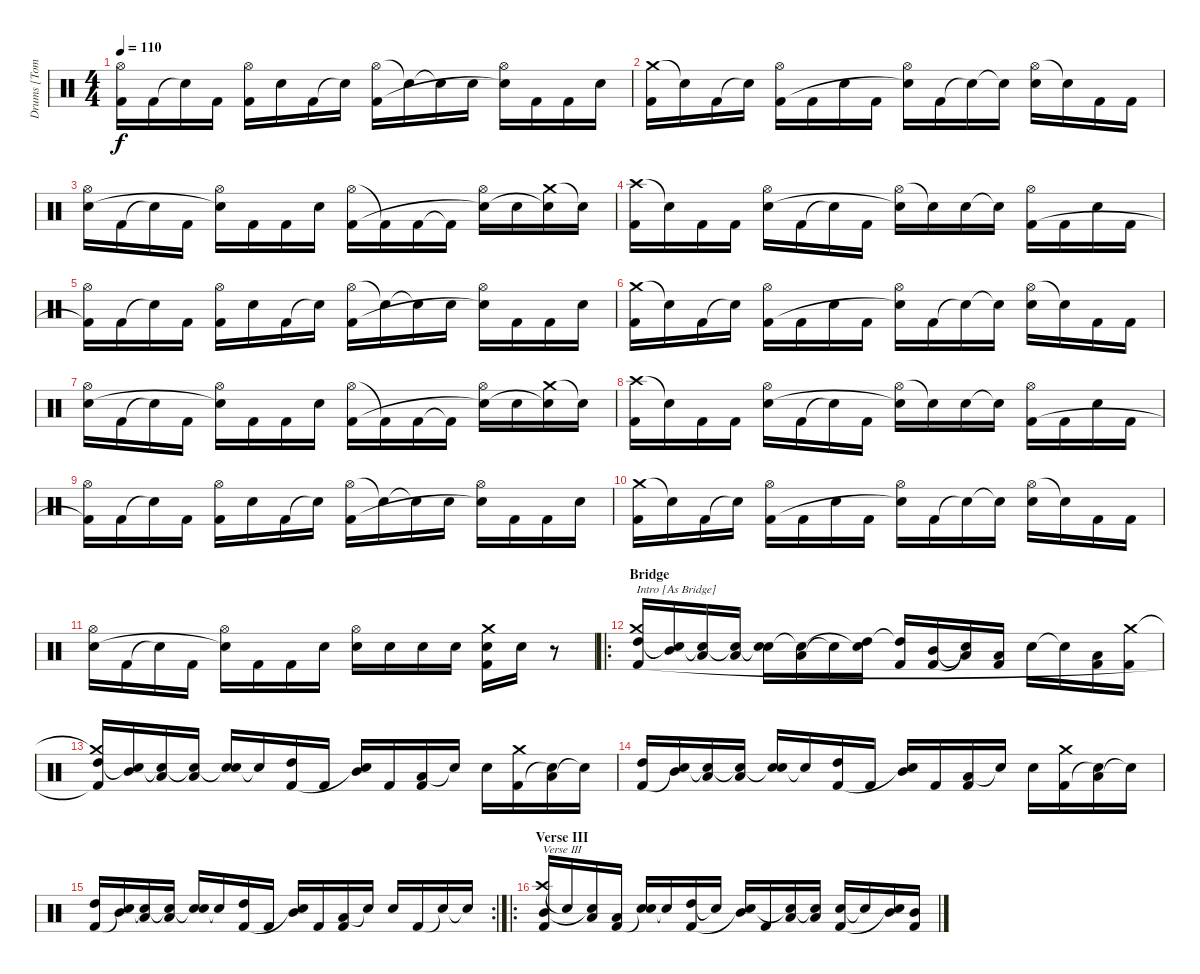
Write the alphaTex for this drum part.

\track ("Drums [Tomas Haake]" "Drums [Tom") {instrument percussion}
\staff {score}
\articulation defaults
\ts (4 4)
\tempo 110
\clef neutral
\ks c
("Hi-Hat (open)" "Kick (hit) 2"{t}).16{dy f} "Kick (hit) 2".16 "Snare (hit)"{t}.16 "Kick (hit) 2".16 ("Hi-Hat (open)" "Kick (hit) 2").16 "Electric Snare (hit)".16 "Kick (hit) 2".16 "Snare (hit)"{t}.16 ("Hi-Hat (open)" "Kick (hit) 2").16 "Snare (hit)"{t}.16 "Snare (hit)"{t}.16 "Electric Snare (hit)".16 ("Hi-Hat (open)" "Snare (hit)"{t}).16 "Kick (hit) 2".16 "Kick (hit) 2".16 "Electric Snare (hit)".16 |
("Crash medium (hit)" "Kick (hit) 2").16 "Snare (hit)"{t}.16 "Kick (hit) 2".16 "Snare (hit)"{t}.16 ("Hi-Hat (open)" "Kick (hit) 2").16 "Kick (hit) 2".16 "Electric Snare (hit)".16 "Kick (hit) 2".16 ("Hi-Hat (open)" "Snare (hit)"{t}).16 "Kick (hit) 2".16 "Snare (hit)"{t}.16 "Snare (hit)"{t}.16 ("Hi-Hat (open)" "Electric Snare (hit)").16 "Snare (hit)"{t}.16 "Kick (hit) 2".16 "Kick (hit) 2".16 |
("Hi-Hat (open)" "Electric Snare (hit)").16 "Kick (hit) 2".16 "Snare (hit)"{t}.16 "Kick (hit) 2".16 ("Hi-Hat (open)" "Snare (hit)"{t}).16 "Kick (hit) 2".16 "Kick (hit) 2".16 "Electric Snare (hit)".16 ("Hi-Hat (open)" "Kick (hit) 2").16 "Kick (hit) 2"{t}.16 "Kick (hit) 2".16 "Kick (hit) 2"{t}.16 ("Hi-Hat (open)" "Snare (hit)"{t}).16 "Electric Snare (hit)".16 ("Crash medium (hit)" "Snare (hit)"{t}).16 "Snare (hit)"{t}.16 |
("Crash high (hit)" "Kick (hit) 2").16 "Snare (hit)"{t}.16 "Kick (hit) 2".16 "Kick (hit) 2".16 ("Hi-Hat (open)" "Electric Snare (hit)").16 "Kick (hit) 2".16 "Snare (hit)"{t}.16 "Kick (hit) 2".16 ("Hi-Hat (open)" "Snare (hit)"{t}).16 "Snare (hit)"{t}.16 "Electric Snare (hit)".16 "Snare (hit)"{t}.16 ("Hi-Hat (open)" "Kick (hit) 2").16 "Kick (hit) 2".16 "Electric Snare (hit)".16 "Kick (hit) 2".16 |
("Hi-Hat (open)" "Kick (hit) 2"{t}).16 "Kick (hit) 2".16 "Snare (hit)"{t}.16 "Kick (hit) 2".16 ("Hi-Hat (open)" "Kick (hit) 2").16 "Electric Snare (hit)".16 "Kick (hit) 2".16 "Snare (hit)"{t}.16 ("Hi-Hat (open)" "Kick (hit) 2").16 "Snare (hit)"{t}.16 "Snare (hit)"{t}.16 "Electric Snare (hit)".16 ("Hi-Hat (open)" "Snare (hit)"{t}).16 "Kick (hit) 2".16 "Kick (hit) 2".16 "Electric Snare (hit)".16 |
("Crash medium (hit)" "Kick (hit) 2").16 "Snare (hit)"{t}.16 "Kick (hit) 2".16 "Snare (hit)"{t}.16 ("Hi-Hat (open)" "Kick (hit) 2").16 "Kick (hit) 2".16 "Electric Snare (hit)".16 "Kick (hit) 2".16 ("Hi-Hat (open)" "Snare (hit)"{t}).16 "Kick (hit) 2".16 "Snare (hit)"{t}.16 "Snare (hit)"{t}.16 ("Hi-Hat (open)" "Electric Snare (hit)").16 "Snare (hit)"{t}.16 "Kick (hit) 2".16 "Kick (hit) 2".16 |
("Hi-Hat (open)" "Electric Snare (hit)").16 "Kick (hit) 2".16 "Snare (hit)"{t}.16 "Kick (hit) 2".16 ("Hi-Hat (open)" "Snare (hit)"{t}).16 "Kick (hit) 2".16 "Kick (hit) 2".16 "Electric Snare (hit)".16 ("Hi-Hat (open)" "Kick (hit) 2").16 "Kick (hit) 2"{t}.16 "Kick (hit) 2".16 "Kick (hit) 2"{t}.16 ("Hi-Hat (open)" "Snare (hit)"{t}).16 "Electric Snare (hit)".16 ("Crash medium (hit)" "Snare (hit)"{t}).16 "Snare (hit)"{t}.16 |
("Crash high (hit)" "Kick (hit) 2").16 "Snare (hit)"{t}.16 "Kick (hit) 2".16 "Kick (hit) 2".16 ("Hi-Hat (open)" "Electric Snare (hit)").16 "Kick (hit) 2".16 "Snare (hit)"{t}.16 "Kick (hit) 2".16 ("Hi-Hat (open)" "Snare (hit)"{t}).16 "Snare (hit)"{t}.16 "Electric Snare (hit)".16 "Snare (hit)"{t}.16 ("Hi-Hat (open)" "Kick (hit) 2").16 "Kick (hit) 2".16 "Electric Snare (hit)".16 "Kick (hit) 2".16 |
("Hi-Hat (open)" "Kick (hit) 2"{t}).16 "Kick (hit) 2".16 "Snare (hit)"{t}.16 "Kick (hit) 2".16 ("Hi-Hat (open)" "Kick (hit) 2").16 "Electric Snare (hit)".16 "Kick (hit) 2".16 "Snare (hit)"{t}.16 ("Hi-Hat (open)" "Kick (hit) 2").16 "Snare (hit)"{t}.16 "Snare (hit)"{t}.16 "Electric Snare (hit)".16 ("Hi-Hat (open)" "Snare (hit)"{t}).16 "Kick (hit) 2".16 "Kick (hit) 2".16 "Electric Snare (hit)".16 |
("Crash medium (hit)" "Kick (hit) 2").16 "Snare (hit)"{t}.16 "Kick (hit) 2".16 "Snare (hit)"{t}.16 ("Hi-Hat (open)" "Kick (hit) 2").16 "Kick (hit) 2".16 "Electric Snare (hit)".16 "Kick (hit) 2".16 ("Hi-Hat (open)" "Snare (hit)"{t}).16 "Kick (hit) 2".16 "Snare (hit)"{t}.16 "Snare (hit)"{t}.16 ("Hi-Hat (open)" "Electric Snare (hit)").16 "Snare (hit)"{t}.16 "Kick (hit) 2".16 "Kick (hit) 2".16 |
("Hi-Hat (open)" "Electric Snare (hit)").16 "Kick (hit) 2".16 "Snare (hit)"{t}.16 "Kick (hit) 2".16 ("Hi-Hat (open)" "Snare (hit)"{t}).16 "Kick (hit) 2".16 "Kick (hit) 2".16 "Electric Snare (hit)".16 ("Hi-Hat (open)" "Electric Snare (hit)").16 "Electric Snare (hit)".16 "Electric Snare (hit)".16 "Electric Snare (hit)".16 ("Crash medium (hit)" "Electric Snare (hit)" "Kick (hit) 2").16 "Electric Snare (hit)".16 r.8 |
\ro
\section ("" "Bridge")
("Crash medium (hit)" "High Tom (hit)" "Kick (hit) 2").16{txt "Intro [As Bridge]"} ("Mid Tom (hit)" "Snare (hit)"{t}).16 ("Low Tom (hit)" "Snare (hit)"{t}).16 ("Low Tom (hit)" "Snare (hit)"{t}).16 ("Electric Snare (hit)" "Snare (hit)"{t}).16 ("Low Tom (hit)" "Snare (hit)"{t}).16 "Snare (hit)"{t}.16 ("High Tom (hit)" "Snare (hit)"{t}).16 ("High Tom (hit)"{t} "Kick (hit) 2").16 ("Mid Tom (hit)" "Kick (hit) 2").16 ("Low Tom (hit)"{t} "Snare (hit)"{t}).16 ("Low Tom (hit)" "Kick (hit) 2").16 "Electric Snare (hit)".16 "Snare (hit)"{t}.16 ("Low Tom (hit)" "Kick (hit) 2").16 ("Crash medium (hit)" "Kick (hit) 2").16 |
("Crash medium (hit)"{t} "High Tom (hit)" "Kick (hit) 2"{t}).16 ("Mid Tom (hit)" "Snare (hit)"{t}).16 ("Low Tom (hit)" "Snare (hit)"{t}).16 ("Low Tom (hit)" "Snare (hit)"{t}).16 ("Electric Snare (hit)" "Snare (hit)"{t}).16 "Snare (hit)"{t}.16 ("High Tom (hit)" "Kick (hit) 2").16 "Kick (hit) 2".16 ("Mid Tom (hit)" "Snare (hit)"{t}).16 "Kick (hit) 2".16 ("Low Tom (hit)" "Kick (hit) 2").16 "Snare (hit)"{t}.16 "Electric Snare (hit)".16 ("Crash medium (hit)" "Kick (hit) 2").16 ("Low Tom (hit)" "Snare (hit)"{t}).16 "Snare (hit)"{t}.16 |
("High Tom (hit)" "Kick (hit) 2").16 ("Mid Tom (hit)" "Snare (hit)"{t}).16 ("Low Tom (hit)" "Snare (hit)"{t}).16 ("Low Tom (hit)" "Snare (hit)"{t}).16 ("Electric Snare (hit)" "Snare (hit)"{t}).16 "Snare (hit)"{t}.16 ("High Tom (hit)" "Kick (hit) 2").16 "Kick (hit) 2".16 ("Mid Tom (hit)" "Snare (hit)"{t}).16 "Kick (hit) 2".16 ("Low Tom (hit)" "Kick (hit) 2").16 "Snare (hit)"{t}.16 "Electric Snare (hit)".16 ("Crash medium (hit)" "Kick (hit) 2").16 ("Low Tom (hit)" "Snare (hit)"{t}).16 "Snare (hit)"{t}.16 |
\rc 2
("High Tom (hit)" "Kick (hit) 2").16 ("Mid Tom (hit)" "Snare (hit)"{t}).16 ("Low Tom (hit)" "Snare (hit)"{t}).16 ("Low Tom (hit)" "Snare (hit)"{t}).16 ("Electric Snare (hit)" "Snare (hit)"{t}).16 "Snare (hit)"{t}.16 ("High Tom (hit)" "Kick (hit) 2").16 "Kick (hit) 2".16 ("Mid Tom (hit)" "Snare (hit)"{t}).16 "Kick (hit) 2".16 ("Low Tom (hit)" "Kick (hit) 2").16 "Snare (hit)"{t}.16 "Electric Snare (hit)".16 "Kick (hit) 2".16 "Snare (hit)"{t}.16 "Snare (hit)"{t}.16 |
\ro
\section ("" "Verse III")
("Crash high (hit)" "Mid Tom (hit)" "Kick (hit) 2").16{txt "Verse III"} "Snare (hit)"{t}.16 ("Low Tom (hit)" "Snare (hit)"{t}).16 ("Low Tom (hit)" "Kick (hit) 2").16 ("Electric Snare (hit)" "Snare (hit)"{t}).16 "Snare (hit)"{t}.16 ("High Tom (hit)" "Kick (hit) 2").16 "Snare (hit)"{t}.16 ("Mid Tom (hit)" "Snare (hit)"{t}).16 "Kick (hit) 2".16 ("Low Tom (hit)" "Snare (hit)"{t}).16 ("Low Tom (hit)" "Snare (hit)"{t}).16 ("Electric Snare (hit)" "Kick (hit) 2").16 "Snare (hit)"{t}.16 ("Mid Tom (hit)" "Snare (hit)"{t}).16 ("Mid Tom (hit)" "Kick (hit) 2").16
